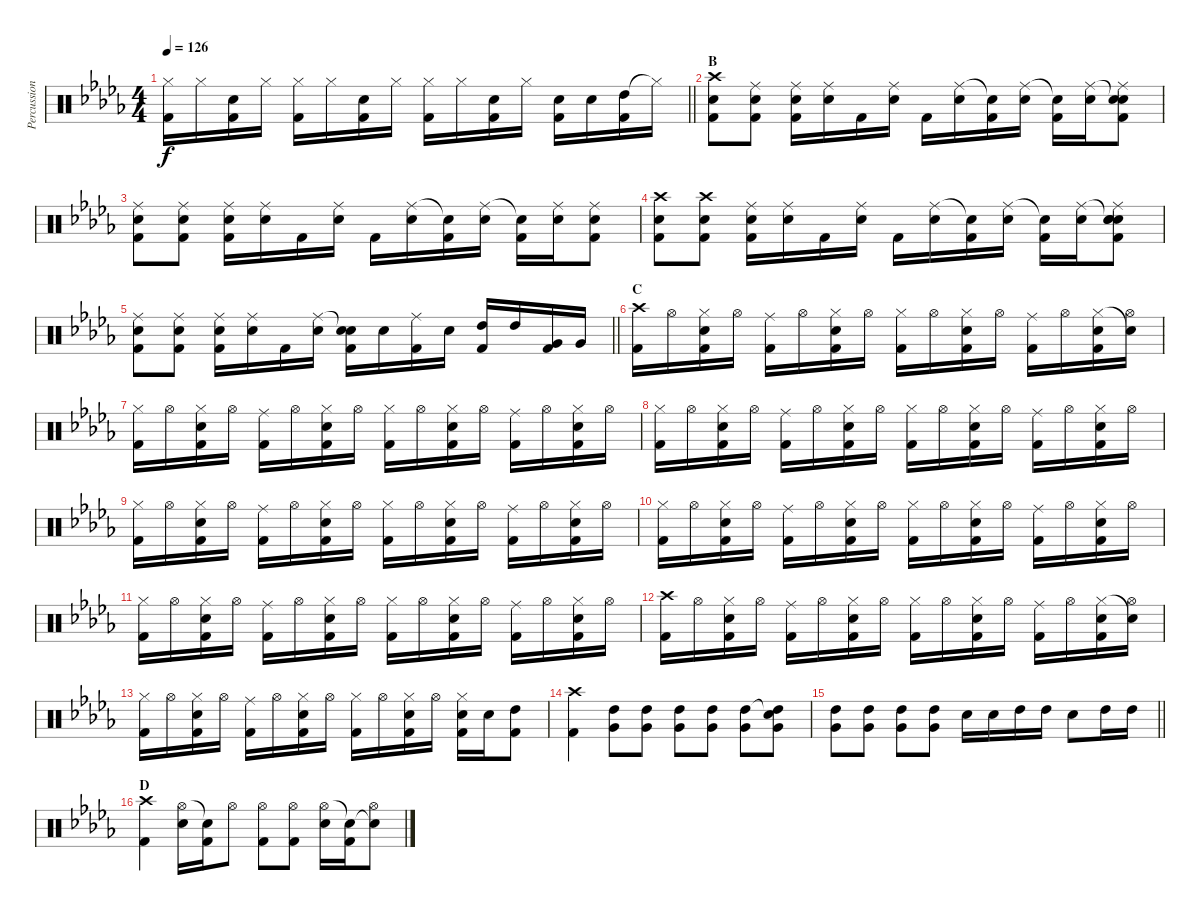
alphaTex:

\track ("Percussion" "Percussion") {instrument percussion}
\staff {score}
\articulation defaults
\ts (4 4)
\tempo 126
\clef neutral
\barLineRight lightlight
\ks db
("Hi-Hat (closed)" "Kick (hit) 2").16{dy f} "Hi-Hat (closed)".16 ("Electric Snare (hit)" "Kick (hit) 2").16 "Hi-Hat (closed)".16 ("Hi-Hat (closed)" "Kick (hit) 2").16 "Hi-Hat (closed)".16 ("Electric Snare (hit)" "Kick (hit) 2").16 "Hi-Hat (closed)".16 ("Hi-Hat (closed)" "Kick (hit) 2").16 "Hi-Hat (closed)".16 ("Electric Snare (hit)" "Kick (hit) 2").16 "Hi-Hat (closed)".16 ("Electric Snare (hit)" "Kick (hit) 2").16 "Electric Snare (hit)".16 ("High Tom (hit)" "Kick (hit) 2").16 "Hi-Hat (closed)"{t}.16 |
\section ("" "B")
("Crash high (hit)" "Electric Snare (hit)" "Kick (hit) 2").8 ("Electric Snare (hit)" "Kick (hit) 2" "Ride (middle)").8 ("Ride (middle)" "Electric Snare (hit)" "Kick (hit) 2").16 ("Ride (middle)" "Electric Snare (hit)").16 "Kick (hit) 2".16 ("Ride (middle)" "Electric Snare (hit)").16 "Kick (hit) 2".16 ("Ride (middle)" "Electric Snare (hit)").16 ("Snare (hit)"{t} "Kick (hit) 2").16 ("Ride (middle)" "Electric Snare (hit)").16 ("Snare (hit)"{t} "Kick (hit) 2").16 ("Ride (middle)" "Electric Snare (hit)").16 ("Snare (hit)"{t} "Ride (middle)" "Electric Snare (hit)" "Kick (hit) 2").8 |
("Ride (middle)" "Electric Snare (hit)" "Kick (hit) 2").8 ("Electric Snare (hit)" "Kick (hit) 2" "Ride (middle)").8 ("Ride (middle)" "Electric Snare (hit)" "Kick (hit) 2").16 ("Ride (middle)" "Electric Snare (hit)").16 "Kick (hit) 2".16 ("Ride (middle)" "Electric Snare (hit)").16 "Kick (hit) 2".16 ("Ride (middle)" "Electric Snare (hit)").16 ("Snare (hit)"{t} "Kick (hit) 2").16 ("Ride (middle)" "Electric Snare (hit)").16 ("Snare (hit)"{t} "Kick (hit) 2").16 ("Ride (middle)" "Electric Snare (hit)").16 ("Ride (middle)" "Electric Snare (hit)" "Kick (hit) 2").8 |
("Crash high (hit)" "Electric Snare (hit)" "Kick (hit) 2").8 ("Electric Snare (hit)" "Kick (hit) 2" "Crash high (hit)").8 ("Ride (middle)" "Electric Snare (hit)" "Kick (hit) 2").16 ("Ride (middle)" "Electric Snare (hit)").16 "Kick (hit) 2".16 ("Ride (middle)" "Electric Snare (hit)").16 "Kick (hit) 2".16 ("Ride (middle)" "Electric Snare (hit)").16 ("Snare (hit)"{t} "Kick (hit) 2").16 ("Ride (middle)" "Electric Snare (hit)").16 ("Snare (hit)"{t} "Kick (hit) 2").16 ("Ride (middle)" "Electric Snare (hit)").16 ("Snare (hit)"{t} "Ride (middle)" "Electric Snare (hit)" "Kick (hit) 2" "Snare (hit)").8 |
\barLineRight lightlight
("Ride (middle)" "Electric Snare (hit)" "Kick (hit) 2").8 ("Ride (middle)" "Electric Snare (hit)" "Kick (hit) 2").8 ("Ride (middle)" "Electric Snare (hit)" "Kick (hit) 2").16 ("Ride (middle)" "Electric Snare (hit)").16 "Kick (hit) 2".16 ("Ride (middle)" "Electric Snare (hit)").16 ("Snare (hit)"{t} "Electric Snare (hit)" "Kick (hit) 2").16 "Electric Snare (hit)".16 ("Ride (middle)" "Kick (hit) 2").16 "Electric Snare (hit)".16 ("High Tom (hit)" "Kick (hit) 2").16 "High Tom (hit)".16 ("Very Low Tom (hit)" "Kick (hit) 2").16 "Very Low Tom (hit)".16 |
\section ("" "C")
("Crash high (hit)" "Kick (hit) 2").16 "Hi-Hat (open)".16 ("Hi-Hat (closed)" "Electric Snare (hit)" "Kick (hit) 2").16 "Hi-Hat (open)".16 ("Ride (middle)" "Kick (hit) 2").16 "Hi-Hat (open)".16 ("Hi-Hat (closed)" "Electric Snare (hit)" "Kick (hit) 2").16 "Hi-Hat (open)".16 ("Hi-Hat (closed)" "Kick (hit) 2").16 "Hi-Hat (open)".16 ("Hi-Hat (closed)" "Electric Snare (hit)" "Kick (hit) 2").16 "Hi-Hat (open)".16 ("Ride (middle)" "Kick (hit) 2").16 "Hi-Hat (open)".16 ("Hi-Hat (closed)" "Electric Snare (hit)" "Kick (hit) 2").16 ("Snare (hit)"{t} "Hi-Hat (open)").16 |
("Hi-Hat (closed)" "Kick (hit) 2").16 "Hi-Hat (open)".16 ("Hi-Hat (closed)" "Electric Snare (hit)" "Kick (hit) 2").16 "Hi-Hat (open)".16 ("Ride (middle)" "Kick (hit) 2").16 "Hi-Hat (open)".16 ("Hi-Hat (closed)" "Electric Snare (hit)" "Kick (hit) 2").16 "Hi-Hat (open)".16 ("Hi-Hat (closed)" "Kick (hit) 2").16 "Hi-Hat (open)".16 ("Hi-Hat (closed)" "Electric Snare (hit)" "Kick (hit) 2").16 "Hi-Hat (open)".16 ("Ride (middle)" "Kick (hit) 2").16 "Hi-Hat (open)".16 ("Hi-Hat (closed)" "Electric Snare (hit)" "Kick (hit) 2").16 "Hi-Hat (open)".16 |
("Hi-Hat (closed)" "Kick (hit) 2").16 "Hi-Hat (open)".16 ("Hi-Hat (closed)" "Electric Snare (hit)" "Kick (hit) 2").16 "Hi-Hat (open)".16 ("Ride (middle)" "Kick (hit) 2").16 "Hi-Hat (open)".16 ("Hi-Hat (closed)" "Electric Snare (hit)" "Kick (hit) 2").16 "Hi-Hat (open)".16 ("Hi-Hat (closed)" "Kick (hit) 2").16 "Hi-Hat (open)".16 ("Hi-Hat (closed)" "Electric Snare (hit)" "Kick (hit) 2").16 "Hi-Hat (open)".16 ("Ride (middle)" "Kick (hit) 2").16 "Hi-Hat (open)".16 ("Hi-Hat (closed)" "Electric Snare (hit)" "Kick (hit) 2").16 "Hi-Hat (open)".16 |
("Hi-Hat (closed)" "Kick (hit) 2").16 "Hi-Hat (open)".16 ("Hi-Hat (closed)" "Electric Snare (hit)" "Kick (hit) 2").16 "Hi-Hat (open)".16 ("Ride (middle)" "Kick (hit) 2").16 "Hi-Hat (open)".16 ("Hi-Hat (closed)" "Electric Snare (hit)" "Kick (hit) 2").16 "Hi-Hat (open)".16 ("Hi-Hat (closed)" "Kick (hit) 2").16 "Hi-Hat (open)".16 ("Hi-Hat (closed)" "Electric Snare (hit)" "Kick (hit) 2").16 "Hi-Hat (open)".16 ("Ride (middle)" "Kick (hit) 2").16 "Hi-Hat (open)".16 ("Hi-Hat (closed)" "Electric Snare (hit)" "Kick (hit) 2").16 "Hi-Hat (open)".16 |
("Hi-Hat (closed)" "Kick (hit) 2").16 "Hi-Hat (open)".16 ("Hi-Hat (closed)" "Electric Snare (hit)" "Kick (hit) 2").16 "Hi-Hat (open)".16 ("Ride (middle)" "Kick (hit) 2").16 "Hi-Hat (open)".16 ("Hi-Hat (closed)" "Electric Snare (hit)" "Kick (hit) 2").16 "Hi-Hat (open)".16 ("Hi-Hat (closed)" "Kick (hit) 2").16 "Hi-Hat (open)".16 ("Hi-Hat (closed)" "Electric Snare (hit)" "Kick (hit) 2").16 "Hi-Hat (open)".16 ("Ride (middle)" "Kick (hit) 2").16 "Hi-Hat (open)".16 ("Hi-Hat (closed)" "Electric Snare (hit)" "Kick (hit) 2").16 "Hi-Hat (open)".16 |
("Hi-Hat (closed)" "Kick (hit) 2").16 "Hi-Hat (open)".16 ("Hi-Hat (closed)" "Electric Snare (hit)" "Kick (hit) 2").16 "Hi-Hat (open)".16 ("Ride (middle)" "Kick (hit) 2").16 "Hi-Hat (open)".16 ("Hi-Hat (closed)" "Electric Snare (hit)" "Kick (hit) 2").16 "Hi-Hat (open)".16 ("Hi-Hat (closed)" "Kick (hit) 2").16 "Hi-Hat (open)".16 ("Hi-Hat (closed)" "Electric Snare (hit)" "Kick (hit) 2").16 "Hi-Hat (open)".16 ("Ride (middle)" "Kick (hit) 2").16 "Hi-Hat (open)".16 ("Hi-Hat (closed)" "Electric Snare (hit)" "Kick (hit) 2").16 "Hi-Hat (open)".16 |
("Crash high (hit)" "Kick (hit) 2").16 "Hi-Hat (open)".16 ("Hi-Hat (closed)" "Electric Snare (hit)" "Kick (hit) 2").16 "Hi-Hat (open)".16 ("Ride (middle)" "Kick (hit) 2").16 "Hi-Hat (open)".16 ("Hi-Hat (closed)" "Electric Snare (hit)" "Kick (hit) 2").16 "Hi-Hat (open)".16 ("Hi-Hat (closed)" "Kick (hit) 2").16 "Hi-Hat (open)".16 ("Hi-Hat (closed)" "Electric Snare (hit)" "Kick (hit) 2").16 "Hi-Hat (open)".16 ("Ride (middle)" "Kick (hit) 2").16 "Hi-Hat (open)".16 ("Hi-Hat (closed)" "Electric Snare (hit)" "Kick (hit) 2").16 ("Snare (hit)"{t} "Hi-Hat (open)").16 |
("Hi-Hat (closed)" "Kick (hit) 2").16 "Hi-Hat (open)".16 ("Hi-Hat (closed)" "Electric Snare (hit)" "Kick (hit) 2").16 "Hi-Hat (open)".16 ("Ride (middle)" "Kick (hit) 2").16 "Hi-Hat (open)".16 ("Hi-Hat (closed)" "Electric Snare (hit)" "Kick (hit) 2").16 "Hi-Hat (open)".16 ("Hi-Hat (closed)" "Kick (hit) 2").16 "Hi-Hat (open)".16 ("Hi-Hat (closed)" "Electric Snare (hit)" "Kick (hit) 2").16 "Hi-Hat (open)".16 ("Hi-Hat (closed)" "Electric Snare (hit)" "Kick (hit) 2").16 "Electric Snare (hit)".16 ("High Tom (hit)" "Kick (hit) 2").8 |
("Crash high (hit)" "Kick (hit) 2").4 ("High Tom (hit)" "Very Low Tom (hit)").8 ("High Tom (hit)" "Very Low Tom (hit)").8 ("High Tom (hit)" "Very Low Tom (hit)").8 ("High Tom (hit)" "Very Low Tom (hit)").8 ("High Tom (hit)" "Very Low Tom (hit)").8 ("Snare (hit)"{t} "High Tom (hit)" "Very Low Tom (hit)").8 |
\barLineRight lightlight
("High Tom (hit)" "Very Low Tom (hit)").8 ("High Tom (hit)" "Very Low Tom (hit)").8 ("High Tom (hit)" "Very Low Tom (hit)").8 ("High Tom (hit)" "Very Low Tom (hit)").8 "Electric Snare (hit)".16 "Electric Snare (hit)".16 "High Tom (hit)".16 "High Tom (hit)".16 "Electric Snare (hit)".8 "High Tom (hit)".16 "High Tom (hit)".16 |
\section ("" "D")
("Crash high (hit)" "Kick (hit) 2").4 ("Hi-Hat (open)" "Electric Snare (hit)").16 ("Snare (hit)"{t} "Kick (hit) 2").16 "Hi-Hat (open)".8 ("Hi-Hat (open)" "Kick (hit) 2").8 ("Hi-Hat (open)" "Kick (hit) 2").8 ("Hi-Hat (open)" "Electric Snare (hit)").16 ("Snare (hit)"{t} "Kick (hit) 2").16 ("Snare (hit)"{t} "Hi-Hat (open)").8
